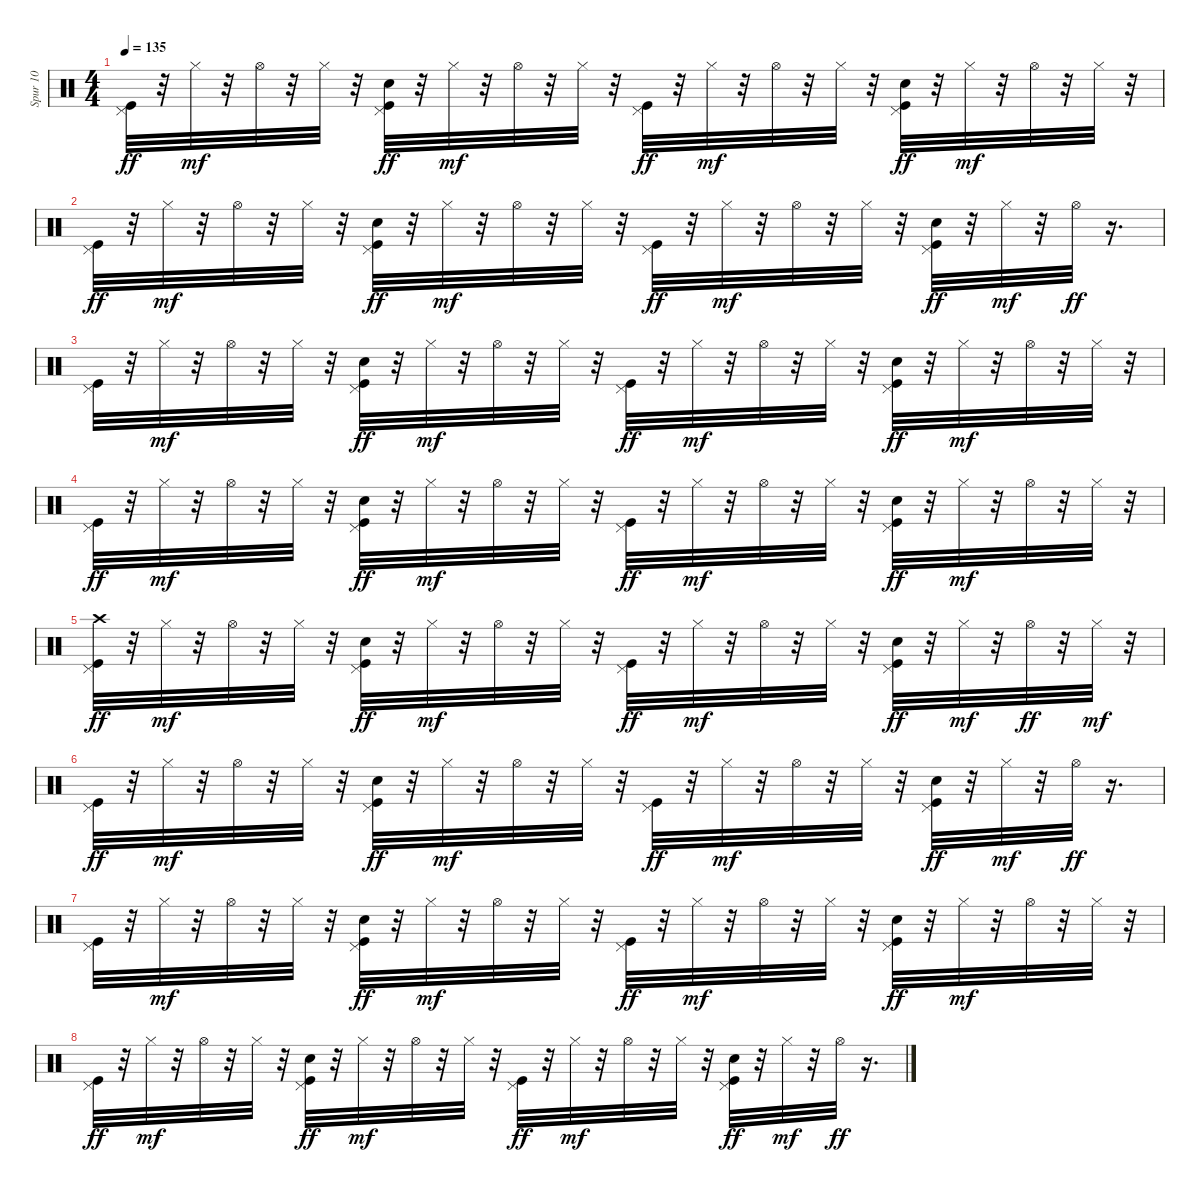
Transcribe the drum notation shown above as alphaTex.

\track ("Spur 10" "Spur 10") {instrument percussion}
\staff {score}
\articulation defaults
\ts (4 4)
\tempo 135
\clef neutral
\ks c
("Kick (hit)" "Pedal Hi-Hat (hit)").32{dy ff} r.32 "Hi-Hat (closed)".32{dy mf} r.32 "Hi-Hat (open)".32 r.32 "Hi-Hat (closed)".32 r.32 ("Kick (hit)" "Hand Clap (hit)" "Pedal Hi-Hat (hit)").32{dy ff} r.32 "Hi-Hat (closed)".32{dy mf} r.32 "Hi-Hat (open)".32 r.32 "Hi-Hat (closed)".32 r.32 ("Kick (hit)" "Pedal Hi-Hat (hit)").32{dy ff} r.32 "Hi-Hat (closed)".32{dy mf} r.32 "Hi-Hat (open)".32 r.32 "Hi-Hat (closed)".32 r.32 ("Kick (hit)" "Hand Clap (hit)" "Pedal Hi-Hat (hit)").32{dy ff} r.32 "Hi-Hat (closed)".32{dy mf} r.32 "Hi-Hat (open)".32 r.32 "Hi-Hat (closed)".32 r.32 |
("Kick (hit)" "Pedal Hi-Hat (hit)").32{dy ff} r.32 "Hi-Hat (closed)".32{dy mf} r.32 "Hi-Hat (open)".32 r.32 "Hi-Hat (closed)".32 r.32 ("Kick (hit)" "Hand Clap (hit)" "Pedal Hi-Hat (hit)").32{dy ff} r.32 "Hi-Hat (closed)".32{dy mf} r.32 "Hi-Hat (open)".32 r.32 "Hi-Hat (closed)".32 r.32 ("Kick (hit)" "Pedal Hi-Hat (hit)").32{dy ff} r.32 "Hi-Hat (closed)".32{dy mf} r.32 "Hi-Hat (open)".32 r.32 "Hi-Hat (closed)".32 r.32 ("Kick (hit)" "Hand Clap (hit)" "Pedal Hi-Hat (hit)").32{dy ff} r.32 "Hi-Hat (closed)".32{dy mf} r.32 "Hi-Hat (open)".32{dy ff} r.16{d} |
("Kick (hit)" "Pedal Hi-Hat (hit)").32 r.32 "Hi-Hat (closed)".32{dy mf} r.32 "Hi-Hat (open)".32 r.32 "Hi-Hat (closed)".32 r.32 ("Kick (hit)" "Hand Clap (hit)" "Pedal Hi-Hat (hit)").32{dy ff} r.32 "Hi-Hat (closed)".32{dy mf} r.32 "Hi-Hat (open)".32 r.32 "Hi-Hat (closed)".32 r.32 ("Kick (hit)" "Pedal Hi-Hat (hit)").32{dy ff} r.32 "Hi-Hat (closed)".32{dy mf} r.32 "Hi-Hat (open)".32 r.32 "Hi-Hat (closed)".32 r.32 ("Kick (hit)" "Hand Clap (hit)" "Pedal Hi-Hat (hit)").32{dy ff} r.32 "Hi-Hat (closed)".32{dy mf} r.32 "Hi-Hat (open)".32 r.32 "Hi-Hat (closed)".32 r.32 |
("Kick (hit)" "Pedal Hi-Hat (hit)").32{dy ff} r.32 "Hi-Hat (closed)".32{dy mf} r.32 "Hi-Hat (open)".32 r.32 "Hi-Hat (closed)".32 r.32 ("Kick (hit)" "Hand Clap (hit)" "Pedal Hi-Hat (hit)").32{dy ff} r.32 "Hi-Hat (closed)".32{dy mf} r.32 "Hi-Hat (open)".32 r.32 "Hi-Hat (closed)".32 r.32 ("Kick (hit)" "Pedal Hi-Hat (hit)").32{dy ff} r.32 "Hi-Hat (closed)".32{dy mf} r.32 "Hi-Hat (open)".32 r.32 "Hi-Hat (closed)".32 r.32 ("Kick (hit)" "Hand Clap (hit)" "Pedal Hi-Hat (hit)").32{dy ff} r.32 "Hi-Hat (closed)".32{dy mf} r.32 "Hi-Hat (open)".32 r.32 "Hi-Hat (closed)".32 r.32 |
("Crash high (hit)" "Kick (hit)" "Pedal Hi-Hat (hit)").32{dy ff} r.32 "Hi-Hat (closed)".32{dy mf} r.32 "Hi-Hat (open)".32 r.32 "Hi-Hat (closed)".32 r.32 ("Kick (hit)" "Hand Clap (hit)" "Pedal Hi-Hat (hit)").32{dy ff} r.32 "Hi-Hat (closed)".32{dy mf} r.32 "Hi-Hat (open)".32 r.32 "Hi-Hat (closed)".32 r.32 ("Kick (hit)" "Pedal Hi-Hat (hit)").32{dy ff} r.32 "Hi-Hat (closed)".32{dy mf} r.32 "Hi-Hat (open)".32 r.32 "Hi-Hat (closed)".32 r.32 ("Kick (hit)" "Hand Clap (hit)" "Pedal Hi-Hat (hit)").32{dy ff} r.32 "Hi-Hat (closed)".32{dy mf} r.32 "Hi-Hat (open)".32{dy ff} r.32 "Hi-Hat (closed)".32{dy mf} r.32 |
("Kick (hit)" "Pedal Hi-Hat (hit)").32{dy ff} r.32 "Hi-Hat (closed)".32{dy mf} r.32 "Hi-Hat (open)".32 r.32 "Hi-Hat (closed)".32 r.32 ("Kick (hit)" "Hand Clap (hit)" "Pedal Hi-Hat (hit)").32{dy ff} r.32 "Hi-Hat (closed)".32{dy mf} r.32 "Hi-Hat (open)".32 r.32 "Hi-Hat (closed)".32 r.32 ("Kick (hit)" "Pedal Hi-Hat (hit)").32{dy ff} r.32 "Hi-Hat (closed)".32{dy mf} r.32 "Hi-Hat (open)".32 r.32 "Hi-Hat (closed)".32 r.32 ("Kick (hit)" "Hand Clap (hit)" "Pedal Hi-Hat (hit)").32{dy ff} r.32 "Hi-Hat (closed)".32{dy mf} r.32 "Hi-Hat (open)".32{dy ff} r.16{d} |
("Kick (hit)" "Pedal Hi-Hat (hit)").32 r.32 "Hi-Hat (closed)".32{dy mf} r.32 "Hi-Hat (open)".32 r.32 "Hi-Hat (closed)".32 r.32 ("Kick (hit)" "Hand Clap (hit)" "Pedal Hi-Hat (hit)").32{dy ff} r.32 "Hi-Hat (closed)".32{dy mf} r.32 "Hi-Hat (open)".32 r.32 "Hi-Hat (closed)".32 r.32 ("Kick (hit)" "Pedal Hi-Hat (hit)").32{dy ff} r.32 "Hi-Hat (closed)".32{dy mf} r.32 "Hi-Hat (open)".32 r.32 "Hi-Hat (closed)".32 r.32 ("Kick (hit)" "Hand Clap (hit)" "Pedal Hi-Hat (hit)").32{dy ff} r.32 "Hi-Hat (closed)".32{dy mf} r.32 "Hi-Hat (open)".32 r.32 "Hi-Hat (closed)".32 r.32 |
("Kick (hit)" "Pedal Hi-Hat (hit)").32{dy ff} r.32 "Hi-Hat (closed)".32{dy mf} r.32 "Hi-Hat (open)".32 r.32 "Hi-Hat (closed)".32 r.32 ("Kick (hit)" "Hand Clap (hit)" "Pedal Hi-Hat (hit)").32{dy ff} r.32 "Hi-Hat (closed)".32{dy mf} r.32 "Hi-Hat (open)".32 r.32 "Hi-Hat (closed)".32 r.32 ("Kick (hit)" "Pedal Hi-Hat (hit)").32{dy ff} r.32 "Hi-Hat (closed)".32{dy mf} r.32 "Hi-Hat (open)".32 r.32 "Hi-Hat (closed)".32 r.32 ("Kick (hit)" "Hand Clap (hit)" "Pedal Hi-Hat (hit)").32{dy ff} r.32 "Hi-Hat (closed)".32{dy mf} r.32 "Hi-Hat (open)".32{dy ff} r.16{d}
